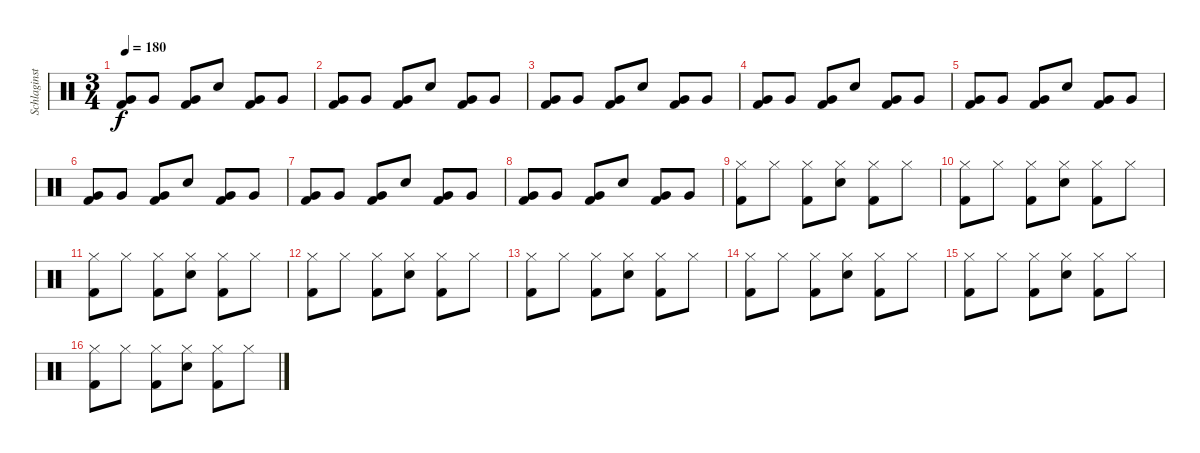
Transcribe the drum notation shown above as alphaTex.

\track ("Schlaginstrumente - Auswahl" "Schlaginst") {instrument percussion}
\staff {score}
\articulation defaults
\ts (3 4)
\tempo 180
\clef neutral
\ks c
("Very Low Tom (hit)" "Kick (hit) 2").8{dy f} "Very Low Tom (hit)".8 ("Very Low Tom (hit)" "Kick (hit) 2").8 "Snare (hit) 2".8 ("Very Low Tom (hit)" "Kick (hit) 2").8 "Very Low Tom (hit)".8 |
("Very Low Tom (hit)" "Kick (hit) 2").8 "Very Low Tom (hit)".8 ("Very Low Tom (hit)" "Kick (hit) 2").8 "Snare (hit) 2".8 ("Very Low Tom (hit)" "Kick (hit) 2").8 "Very Low Tom (hit)".8 |
("Very Low Tom (hit)" "Kick (hit) 2").8 "Very Low Tom (hit)".8 ("Very Low Tom (hit)" "Kick (hit) 2").8 "Snare (hit) 2".8 ("Very Low Tom (hit)" "Kick (hit) 2").8 "Very Low Tom (hit)".8 |
("Very Low Tom (hit)" "Kick (hit) 2").8 "Very Low Tom (hit)".8 ("Very Low Tom (hit)" "Kick (hit) 2").8 "Snare (hit) 2".8 ("Very Low Tom (hit)" "Kick (hit) 2").8 "Very Low Tom (hit)".8 |
("Very Low Tom (hit)" "Kick (hit) 2").8 "Very Low Tom (hit)".8 ("Very Low Tom (hit)" "Kick (hit) 2").8 "Snare (hit) 2".8 ("Very Low Tom (hit)" "Kick (hit) 2").8 "Very Low Tom (hit)".8 |
("Very Low Tom (hit)" "Kick (hit) 2").8 "Very Low Tom (hit)".8 ("Very Low Tom (hit)" "Kick (hit) 2").8 "Snare (hit) 2".8 ("Very Low Tom (hit)" "Kick (hit) 2").8 "Very Low Tom (hit)".8 |
("Very Low Tom (hit)" "Kick (hit) 2").8 "Very Low Tom (hit)".8 ("Very Low Tom (hit)" "Kick (hit) 2").8 "Snare (hit) 2".8 ("Very Low Tom (hit)" "Kick (hit) 2").8 "Very Low Tom (hit)".8 |
("Very Low Tom (hit)" "Kick (hit) 2").8 "Very Low Tom (hit)".8 ("Very Low Tom (hit)" "Kick (hit) 2").8 "Snare (hit) 2".8 ("Very Low Tom (hit)" "Kick (hit) 2").8 "Very Low Tom (hit)".8 |
("Hi-Hat (closed)" "Kick (hit) 2").8 "Hi-Hat (closed)".8 ("Hi-Hat (closed)" "Kick (hit) 2").8 ("Hi-Hat (closed)" "Snare (hit) 2").8 ("Hi-Hat (closed)" "Kick (hit) 2").8 "Hi-Hat (closed)".8 |
("Hi-Hat (closed)" "Kick (hit) 2").8 "Hi-Hat (closed)".8 ("Hi-Hat (closed)" "Kick (hit) 2").8 ("Hi-Hat (closed)" "Snare (hit) 2").8 ("Hi-Hat (closed)" "Kick (hit) 2").8 "Hi-Hat (closed)".8 |
("Hi-Hat (closed)" "Kick (hit) 2").8 "Hi-Hat (closed)".8 ("Hi-Hat (closed)" "Kick (hit) 2").8 ("Hi-Hat (closed)" "Snare (hit) 2").8 ("Hi-Hat (closed)" "Kick (hit) 2").8 "Hi-Hat (closed)".8 |
("Hi-Hat (closed)" "Kick (hit) 2").8 "Hi-Hat (closed)".8 ("Hi-Hat (closed)" "Kick (hit) 2").8 ("Hi-Hat (closed)" "Snare (hit) 2").8 ("Hi-Hat (closed)" "Kick (hit) 2").8 "Hi-Hat (closed)".8 |
("Hi-Hat (closed)" "Kick (hit) 2").8 "Hi-Hat (closed)".8 ("Hi-Hat (closed)" "Kick (hit) 2").8 ("Hi-Hat (closed)" "Snare (hit) 2").8 ("Hi-Hat (closed)" "Kick (hit) 2").8 "Hi-Hat (closed)".8 |
("Hi-Hat (closed)" "Kick (hit) 2").8 "Hi-Hat (closed)".8 ("Hi-Hat (closed)" "Kick (hit) 2").8 ("Hi-Hat (closed)" "Snare (hit) 2").8 ("Hi-Hat (closed)" "Kick (hit) 2").8 "Hi-Hat (closed)".8 |
("Hi-Hat (closed)" "Kick (hit) 2").8 "Hi-Hat (closed)".8 ("Hi-Hat (closed)" "Kick (hit) 2").8 ("Hi-Hat (closed)" "Snare (hit) 2").8 ("Hi-Hat (closed)" "Kick (hit) 2").8 "Hi-Hat (closed)".8 |
("Hi-Hat (closed)" "Kick (hit) 2").8 "Hi-Hat (closed)".8 ("Hi-Hat (closed)" "Kick (hit) 2").8 ("Hi-Hat (closed)" "Snare (hit) 2").8 ("Hi-Hat (closed)" "Kick (hit) 2").8 "Hi-Hat (closed)".8
